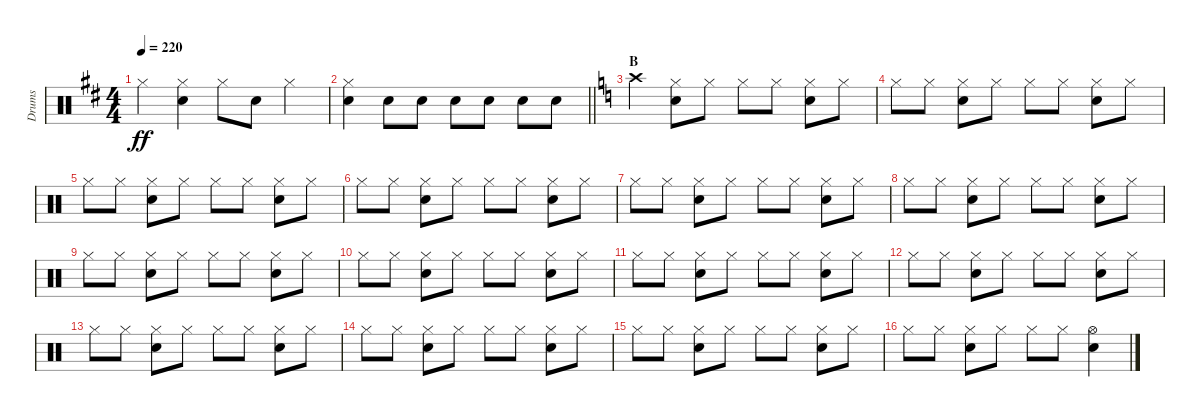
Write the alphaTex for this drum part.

\track ("Drums" "Drums") {instrument percussion}
\staff {score}
\articulation defaults
\ts (4 4)
\tempo 220
\clef neutral
\ks d "Hi-Hat (closed)".4{dy ff}
("Hi-Hat (closed)" "Snare (hit) 2").4 "Hi-Hat (closed)".8 "Snare (hit) 2".8 "Hi-Hat (closed)".4 |
\barLineRight lightlight
("Hi-Hat (closed)" "Snare (hit) 2").4 "Snare (hit) 2".8 "Snare (hit) 2".8 "Snare (hit) 2".8 "Snare (hit) 2".8 "Snare (hit) 2".8 "Snare (hit) 2".8 |
\section ("" "B")
\ks c "Crash high (hit)".4
("Hi-Hat (closed)" "Snare (hit) 2").8 "Hi-Hat (closed)".8 "Hi-Hat (closed)".8 "Hi-Hat (closed)".8 ("Hi-Hat (closed)" "Snare (hit) 2").8 "Hi-Hat (closed)".8 |
"Hi-Hat (closed)".8 "Hi-Hat (closed)".8 ("Hi-Hat (closed)" "Snare (hit) 2").8 "Hi-Hat (closed)".8 "Hi-Hat (closed)".8 "Hi-Hat (closed)".8 ("Hi-Hat (closed)" "Snare (hit) 2").8 "Hi-Hat (closed)".8 |
"Hi-Hat (closed)".8 "Hi-Hat (closed)".8 ("Hi-Hat (closed)" "Snare (hit) 2").8 "Hi-Hat (closed)".8 "Hi-Hat (closed)".8 "Hi-Hat (closed)".8 ("Hi-Hat (closed)" "Snare (hit) 2").8 "Hi-Hat (closed)".8 |
"Hi-Hat (closed)".8 "Hi-Hat (closed)".8 ("Hi-Hat (closed)" "Snare (hit) 2").8 "Hi-Hat (closed)".8 "Hi-Hat (closed)".8 "Hi-Hat (closed)".8 ("Hi-Hat (closed)" "Snare (hit) 2").8 "Hi-Hat (closed)".8 |
"Hi-Hat (closed)".8 "Hi-Hat (closed)".8 ("Hi-Hat (closed)" "Snare (hit) 2").8 "Hi-Hat (closed)".8 "Hi-Hat (closed)".8 "Hi-Hat (closed)".8 ("Hi-Hat (closed)" "Snare (hit) 2").8 "Hi-Hat (closed)".8 |
"Hi-Hat (closed)".8 "Hi-Hat (closed)".8 ("Hi-Hat (closed)" "Snare (hit) 2").8 "Hi-Hat (closed)".8 "Hi-Hat (closed)".8 "Hi-Hat (closed)".8 ("Hi-Hat (closed)" "Snare (hit) 2").8 "Hi-Hat (closed)".8 |
"Hi-Hat (closed)".8 "Hi-Hat (closed)".8 ("Hi-Hat (closed)" "Snare (hit) 2").8 "Hi-Hat (closed)".8 "Hi-Hat (closed)".8 "Hi-Hat (closed)".8 ("Hi-Hat (closed)" "Snare (hit) 2").8 "Hi-Hat (closed)".8 |
"Hi-Hat (closed)".8 "Hi-Hat (closed)".8 ("Hi-Hat (closed)" "Snare (hit) 2").8 "Hi-Hat (closed)".8 "Hi-Hat (closed)".8 "Hi-Hat (closed)".8 ("Hi-Hat (closed)" "Snare (hit) 2").8 "Hi-Hat (closed)".8 |
"Hi-Hat (closed)".8 "Hi-Hat (closed)".8 ("Hi-Hat (closed)" "Snare (hit) 2").8 "Hi-Hat (closed)".8 "Hi-Hat (closed)".8 "Hi-Hat (closed)".8 ("Hi-Hat (closed)" "Snare (hit) 2").8 "Hi-Hat (closed)".8 |
"Hi-Hat (closed)".8 "Hi-Hat (closed)".8 ("Hi-Hat (closed)" "Snare (hit) 2").8 "Hi-Hat (closed)".8 "Hi-Hat (closed)".8 "Hi-Hat (closed)".8 ("Hi-Hat (closed)" "Snare (hit) 2").8 "Hi-Hat (closed)".8 |
"Hi-Hat (closed)".8 "Hi-Hat (closed)".8 ("Hi-Hat (closed)" "Snare (hit) 2").8 "Hi-Hat (closed)".8 "Hi-Hat (closed)".8 "Hi-Hat (closed)".8 ("Hi-Hat (closed)" "Snare (hit) 2").8 "Hi-Hat (closed)".8 |
"Hi-Hat (closed)".8 "Hi-Hat (closed)".8 ("Hi-Hat (closed)" "Snare (hit) 2").8 "Hi-Hat (closed)".8 "Hi-Hat (closed)".8 "Hi-Hat (closed)".8 ("Hi-Hat (closed)" "Snare (hit) 2").8 "Hi-Hat (closed)".8 |
"Hi-Hat (closed)".8 "Hi-Hat (closed)".8 ("Hi-Hat (closed)" "Snare (hit) 2").8 "Hi-Hat (closed)".8 "Hi-Hat (closed)".8 "Hi-Hat (closed)".8 ("Hi-Hat (closed)" "Snare (hit) 2").8 "Hi-Hat (closed)".8 |
"Hi-Hat (closed)".8 "Hi-Hat (closed)".8 ("Hi-Hat (closed)" "Snare (hit) 2").8 "Hi-Hat (closed)".8 "Hi-Hat (closed)".8 "Hi-Hat (closed)".8 ("Snare (hit) 2" "Hi-Hat (open)").4
